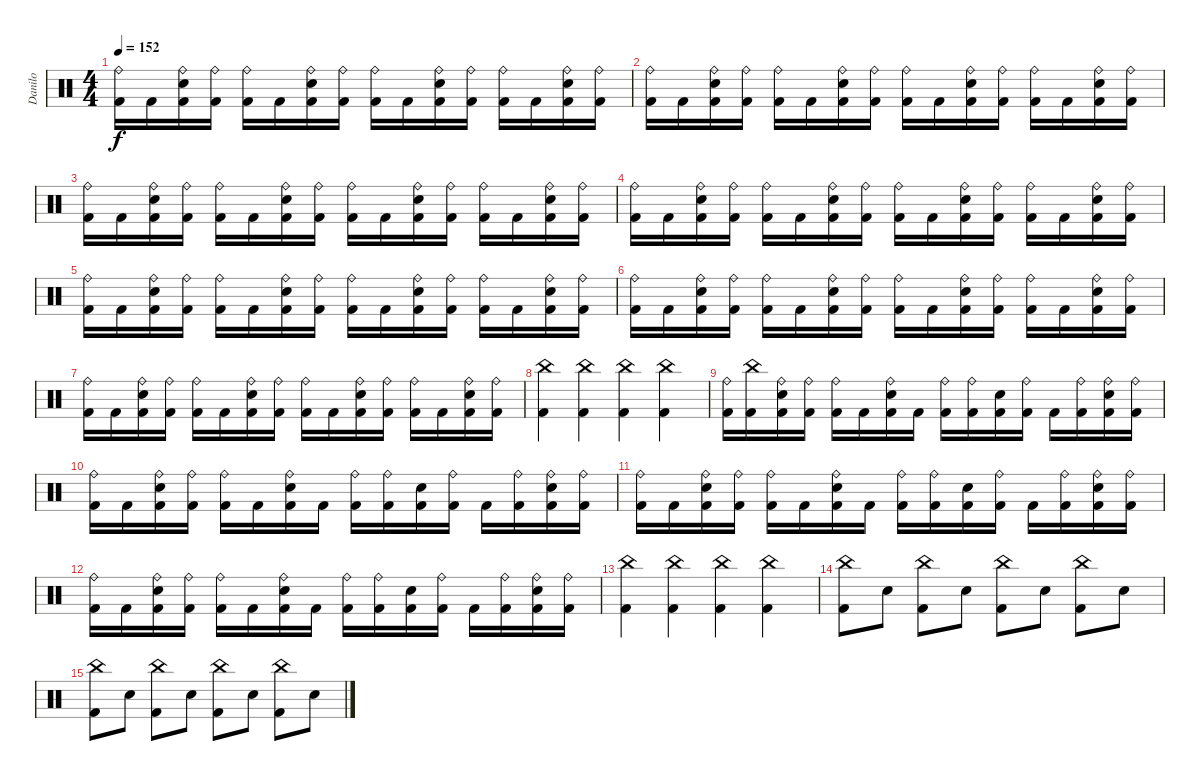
\track ("Danilo" "Danilo") {instrument percussion}
\staff {score}
\articulation defaults
\ts (4 4)
\tempo 152
\clef neutral
\ks c
("Ride (bell)" "Kick (hit) 2").16{dy f} "Kick (hit) 2".16 ("Ride (bell)" "Snare (hit) 2" "Kick (hit) 2").16 ("Ride (bell)" "Kick (hit) 2").16 ("Ride (bell)" "Kick (hit) 2").16 "Kick (hit) 2".16 ("Ride (bell)" "Snare (hit) 2" "Kick (hit) 2").16 ("Ride (bell)" "Kick (hit) 2").16 ("Ride (bell)" "Kick (hit) 2").16 "Kick (hit) 2".16 ("Ride (bell)" "Snare (hit) 2" "Kick (hit) 2").16 ("Ride (bell)" "Kick (hit) 2").16 ("Ride (bell)" "Kick (hit) 2").16 "Kick (hit) 2".16 ("Ride (bell)" "Snare (hit) 2" "Kick (hit) 2").16 ("Ride (bell)" "Kick (hit) 2").16 |
("Ride (bell)" "Kick (hit) 2").16 "Kick (hit) 2".16 ("Ride (bell)" "Snare (hit) 2" "Kick (hit) 2").16 ("Ride (bell)" "Kick (hit) 2").16 ("Ride (bell)" "Kick (hit) 2").16 "Kick (hit) 2".16 ("Ride (bell)" "Snare (hit) 2" "Kick (hit) 2").16 ("Ride (bell)" "Kick (hit) 2").16 ("Ride (bell)" "Kick (hit) 2").16 "Kick (hit) 2".16 ("Ride (bell)" "Snare (hit) 2" "Kick (hit) 2").16 ("Ride (bell)" "Kick (hit) 2").16 ("Ride (bell)" "Kick (hit) 2").16 "Kick (hit) 2".16 ("Ride (bell)" "Snare (hit) 2" "Kick (hit) 2").16 ("Ride (bell)" "Kick (hit) 2").16 |
("Ride (bell)" "Kick (hit) 2").16 "Kick (hit) 2".16 ("Ride (bell)" "Snare (hit) 2" "Kick (hit) 2").16 ("Ride (bell)" "Kick (hit) 2").16 ("Ride (bell)" "Kick (hit) 2").16 "Kick (hit) 2".16 ("Ride (bell)" "Snare (hit) 2" "Kick (hit) 2").16 ("Ride (bell)" "Kick (hit) 2").16 ("Ride (bell)" "Kick (hit) 2").16 "Kick (hit) 2".16 ("Ride (bell)" "Snare (hit) 2" "Kick (hit) 2").16 ("Ride (bell)" "Kick (hit) 2").16 ("Ride (bell)" "Kick (hit) 2").16 "Kick (hit) 2".16 ("Ride (bell)" "Snare (hit) 2" "Kick (hit) 2").16 ("Ride (bell)" "Kick (hit) 2").16 |
("Ride (bell)" "Kick (hit) 2").16 "Kick (hit) 2".16 ("Ride (bell)" "Snare (hit) 2" "Kick (hit) 2").16 ("Ride (bell)" "Kick (hit) 2").16 ("Ride (bell)" "Kick (hit) 2").16 "Kick (hit) 2".16 ("Ride (bell)" "Snare (hit) 2" "Kick (hit) 2").16 ("Ride (bell)" "Kick (hit) 2").16 ("Ride (bell)" "Kick (hit) 2").16 "Kick (hit) 2".16 ("Ride (bell)" "Snare (hit) 2" "Kick (hit) 2").16 ("Ride (bell)" "Kick (hit) 2").16 ("Ride (bell)" "Kick (hit) 2").16 "Kick (hit) 2".16 ("Ride (bell)" "Snare (hit) 2" "Kick (hit) 2").16 ("Ride (bell)" "Kick (hit) 2").16 |
("Ride (bell)" "Kick (hit) 2").16 "Kick (hit) 2".16 ("Ride (bell)" "Snare (hit) 2" "Kick (hit) 2").16 ("Ride (bell)" "Kick (hit) 2").16 ("Ride (bell)" "Kick (hit) 2").16 "Kick (hit) 2".16 ("Ride (bell)" "Snare (hit) 2" "Kick (hit) 2").16 ("Ride (bell)" "Kick (hit) 2").16 ("Ride (bell)" "Kick (hit) 2").16 "Kick (hit) 2".16 ("Ride (bell)" "Snare (hit) 2" "Kick (hit) 2").16 ("Ride (bell)" "Kick (hit) 2").16 ("Ride (bell)" "Kick (hit) 2").16 "Kick (hit) 2".16 ("Ride (bell)" "Snare (hit) 2" "Kick (hit) 2").16 ("Ride (bell)" "Kick (hit) 2").16 |
("Ride (bell)" "Kick (hit) 2").16 "Kick (hit) 2".16 ("Ride (bell)" "Snare (hit) 2" "Kick (hit) 2").16 ("Ride (bell)" "Kick (hit) 2").16 ("Ride (bell)" "Kick (hit) 2").16 "Kick (hit) 2".16 ("Ride (bell)" "Snare (hit) 2" "Kick (hit) 2").16 ("Ride (bell)" "Kick (hit) 2").16 ("Ride (bell)" "Kick (hit) 2").16 "Kick (hit) 2".16 ("Ride (bell)" "Snare (hit) 2" "Kick (hit) 2").16 ("Ride (bell)" "Kick (hit) 2").16 ("Ride (bell)" "Kick (hit) 2").16 "Kick (hit) 2".16 ("Ride (bell)" "Snare (hit) 2" "Kick (hit) 2").16 ("Ride (bell)" "Kick (hit) 2").16 |
("Ride (bell)" "Kick (hit) 2").16 "Kick (hit) 2".16 ("Ride (bell)" "Snare (hit) 2" "Kick (hit) 2").16 ("Ride (bell)" "Kick (hit) 2").16 ("Ride (bell)" "Kick (hit) 2").16 "Kick (hit) 2".16 ("Ride (bell)" "Snare (hit) 2" "Kick (hit) 2").16 ("Ride (bell)" "Kick (hit) 2").16 ("Ride (bell)" "Kick (hit) 2").16 "Kick (hit) 2".16 ("Ride (bell)" "Snare (hit) 2" "Kick (hit) 2").16 ("Ride (bell)" "Kick (hit) 2").16 ("Ride (bell)" "Kick (hit) 2").16 "Kick (hit) 2".16 ("Ride (bell)" "Snare (hit) 2" "Kick (hit) 2").16 ("Ride (bell)" "Kick (hit) 2").16 |
("Kick (hit) 2" "China (hit)").4 ("Kick (hit) 2" "China (hit)").4 ("Kick (hit) 2" "China (hit)").4 ("Kick (hit) 2" "China (hit)").4 |
("Ride (bell)" "Kick (hit) 2").16 ("China (hit)" "Kick (hit) 2").16 ("Ride (bell)" "Snare (hit) 2" "Kick (hit) 2").16 ("Ride (bell)" "Kick (hit) 2").16 ("Ride (bell)" "Kick (hit) 2").16 "Kick (hit) 2".16 ("Ride (bell)" "Snare (hit) 2" "Kick (hit) 2").16 "Kick (hit) 2".16 ("Ride (bell)" "Kick (hit) 2").16 ("Ride (bell)" "Kick (hit) 2").16 ("Snare (hit) 2" "Kick (hit) 2").16 ("Ride (bell)" "Kick (hit) 2").16 "Kick (hit) 2".16 ("Ride (bell)" "Kick (hit) 2").16 ("Ride (bell)" "Snare (hit) 2" "Kick (hit) 2").16 ("Ride (bell)" "Kick (hit) 2").16 |
("Ride (bell)" "Kick (hit) 2").16 "Kick (hit) 2".16 ("Ride (bell)" "Snare (hit) 2" "Kick (hit) 2").16 ("Ride (bell)" "Kick (hit) 2").16 ("Ride (bell)" "Kick (hit) 2").16 "Kick (hit) 2".16 ("Ride (bell)" "Snare (hit) 2" "Kick (hit) 2").16 "Kick (hit) 2".16 ("Ride (bell)" "Kick (hit) 2").16 ("Ride (bell)" "Kick (hit) 2").16 ("Snare (hit) 2" "Kick (hit) 2").16 ("Ride (bell)" "Kick (hit) 2").16 "Kick (hit) 2".16 ("Ride (bell)" "Kick (hit) 2").16 ("Ride (bell)" "Snare (hit) 2" "Kick (hit) 2").16 ("Ride (bell)" "Kick (hit) 2").16 |
("Ride (bell)" "Kick (hit) 2").16 "Kick (hit) 2".16 ("Ride (bell)" "Snare (hit) 2" "Kick (hit) 2").16 ("Ride (bell)" "Kick (hit) 2").16 ("Ride (bell)" "Kick (hit) 2").16 "Kick (hit) 2".16 ("Ride (bell)" "Snare (hit) 2" "Kick (hit) 2").16 "Kick (hit) 2".16 ("Ride (bell)" "Kick (hit) 2").16 ("Ride (bell)" "Kick (hit) 2").16 ("Snare (hit) 2" "Kick (hit) 2").16 ("Ride (bell)" "Kick (hit) 2").16 "Kick (hit) 2".16 ("Ride (bell)" "Kick (hit) 2").16 ("Ride (bell)" "Snare (hit) 2" "Kick (hit) 2").16 ("Ride (bell)" "Kick (hit) 2").16 |
("Ride (bell)" "Kick (hit) 2").16 "Kick (hit) 2".16 ("Ride (bell)" "Snare (hit) 2" "Kick (hit) 2").16 ("Ride (bell)" "Kick (hit) 2").16 ("Ride (bell)" "Kick (hit) 2").16 "Kick (hit) 2".16 ("Ride (bell)" "Snare (hit) 2" "Kick (hit) 2").16 "Kick (hit) 2".16 ("Ride (bell)" "Kick (hit) 2").16 ("Ride (bell)" "Kick (hit) 2").16 ("Snare (hit) 2" "Kick (hit) 2").16 ("Ride (bell)" "Kick (hit) 2").16 "Kick (hit) 2".16 ("Ride (bell)" "Kick (hit) 2").16 ("Ride (bell)" "Snare (hit) 2" "Kick (hit) 2").16 ("Ride (bell)" "Kick (hit) 2").16 |
("Kick (hit) 2" "China (hit)").4 ("Kick (hit) 2" "China (hit)").4 ("Kick (hit) 2" "China (hit)").4 ("Kick (hit) 2" "China (hit)").4 |
("Kick (hit) 2" "China (hit)").8 "Snare (hit) 2".8 ("Kick (hit) 2" "China (hit)").8 "Snare (hit) 2".8 ("Kick (hit) 2" "China (hit)").8 "Snare (hit) 2".8 ("China (hit)" "Kick (hit) 2").8 "Snare (hit) 2".8 |
("Kick (hit) 2" "China (hit)").8 "Snare (hit) 2".8 ("Kick (hit) 2" "China (hit)").8 "Snare (hit) 2".8 ("Kick (hit) 2" "China (hit)").8 "Snare (hit) 2".8 ("China (hit)" "Kick (hit) 2").8 "Snare (hit) 2".8
